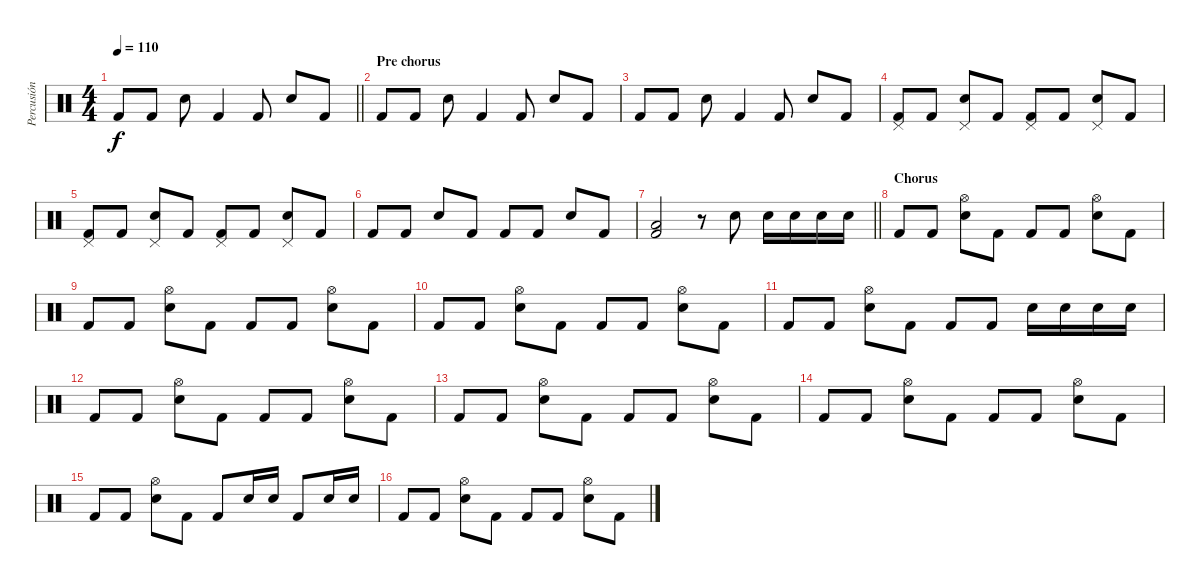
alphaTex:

\track ("Percusión" "Percusión") {instrument percussion}
\staff {score}
\articulation defaults
\ts (4 4)
\tempo 110
\clef neutral
\barLineRight lightlight
\ks c "Kick (hit) 2".8{dy f} "Kick (hit) 2".8 "Snare (hit) 2".8 "Kick (hit) 2".4 "Kick (hit) 2".8 "Snare (hit) 2".8 "Kick (hit) 2".8
|
\section ("" "Pre chorus")
"Kick (hit) 2".8 "Kick (hit) 2".8 "Snare (hit) 2".8 "Kick (hit) 2".4 "Kick (hit) 2".8 "Snare (hit) 2".8 "Kick (hit) 2".8 |
"Kick (hit) 2".8 "Kick (hit) 2".8 "Snare (hit) 2".8 "Kick (hit) 2".4 "Kick (hit) 2".8 "Snare (hit) 2".8 "Kick (hit) 2".8 |
("Pedal Hi-Hat (hit)" "Kick (hit) 2").8 "Kick (hit) 2".8 ("Pedal Hi-Hat (hit)" "Snare (hit) 2").8 "Kick (hit) 2".8 ("Pedal Hi-Hat (hit)" "Kick (hit) 2").8 "Kick (hit) 2".8 ("Pedal Hi-Hat (hit)" "Snare (hit) 2").8 "Kick (hit) 2".8 |
("Pedal Hi-Hat (hit)" "Kick (hit) 2").8 "Kick (hit) 2".8 ("Pedal Hi-Hat (hit)" "Snare (hit) 2").8 "Kick (hit) 2".8 ("Pedal Hi-Hat (hit)" "Kick (hit) 2").8 "Kick (hit) 2".8 ("Pedal Hi-Hat (hit)" "Snare (hit) 2").8 "Kick (hit) 2".8 |
"Kick (hit) 2".8 "Kick (hit) 2".8 "Snare (hit) 2".8 "Kick (hit) 2".8 "Kick (hit) 2".8 "Kick (hit) 2".8 "Snare (hit) 2".8 "Kick (hit) 2".8 |
\barLineRight lightlight
("Low Floor Tom (hit)" "Kick (hit) 2").2 r.8 "Electric Snare (hit)".8 "Electric Snare (hit)".16 "Electric Snare (hit)".16 "Electric Snare (hit)".16 "Electric Snare (hit)".16 |
\section ("" "Chorus")
"Kick (hit) 2".8 "Kick (hit) 2".8 ("Hi-Hat (open)" "Snare (hit) 2").8 "Kick (hit) 2".8 "Kick (hit) 2".8 "Kick (hit) 2".8 ("Hi-Hat (open)" "Snare (hit) 2").8 "Kick (hit) 2".8 |
"Kick (hit) 2".8 "Kick (hit) 2".8 ("Hi-Hat (open)" "Snare (hit) 2").8 "Kick (hit) 2".8 "Kick (hit) 2".8 "Kick (hit) 2".8 ("Hi-Hat (open)" "Snare (hit) 2").8 "Kick (hit) 2".8 |
"Kick (hit) 2".8 "Kick (hit) 2".8 ("Hi-Hat (open)" "Snare (hit) 2").8 "Kick (hit) 2".8 "Kick (hit) 2".8 "Kick (hit) 2".8 ("Hi-Hat (open)" "Snare (hit) 2").8 "Kick (hit) 2".8 |
"Kick (hit) 2".8 "Kick (hit) 2".8 ("Hi-Hat (open)" "Snare (hit) 2").8 "Kick (hit) 2".8 "Kick (hit) 2".8 "Kick (hit) 2".8 "Snare (hit) 2".16 "Snare (hit) 2".16 "Snare (hit) 2".16 "Snare (hit) 2".16 |
"Kick (hit) 2".8 "Kick (hit) 2".8 ("Hi-Hat (open)" "Snare (hit) 2").8 "Kick (hit) 2".8 "Kick (hit) 2".8 "Kick (hit) 2".8 ("Hi-Hat (open)" "Snare (hit) 2").8 "Kick (hit) 2".8 |
"Kick (hit) 2".8 "Kick (hit) 2".8 ("Hi-Hat (open)" "Snare (hit) 2").8 "Kick (hit) 2".8 "Kick (hit) 2".8 "Kick (hit) 2".8 ("Hi-Hat (open)" "Snare (hit) 2").8 "Kick (hit) 2".8 |
"Kick (hit) 2".8 "Kick (hit) 2".8 ("Hi-Hat (open)" "Snare (hit) 2").8 "Kick (hit) 2".8 "Kick (hit) 2".8 "Kick (hit) 2".8 ("Hi-Hat (open)" "Snare (hit) 2").8 "Kick (hit) 2".8 |
"Kick (hit) 2".8 "Kick (hit) 2".8 ("Hi-Hat (open)" "Snare (hit) 2").8 "Kick (hit) 2".8 "Kick (hit) 2".8 "Snare (hit) 2".16 "Snare (hit) 2".16 "Kick (hit) 2".8 "Snare (hit) 2".16 "Snare (hit) 2".16 |
"Kick (hit) 2".8 "Kick (hit) 2".8 ("Hi-Hat (open)" "Snare (hit) 2").8 "Kick (hit) 2".8 "Kick (hit) 2".8 "Kick (hit) 2".8 ("Hi-Hat (open)" "Snare (hit) 2").8 "Kick (hit) 2".8
